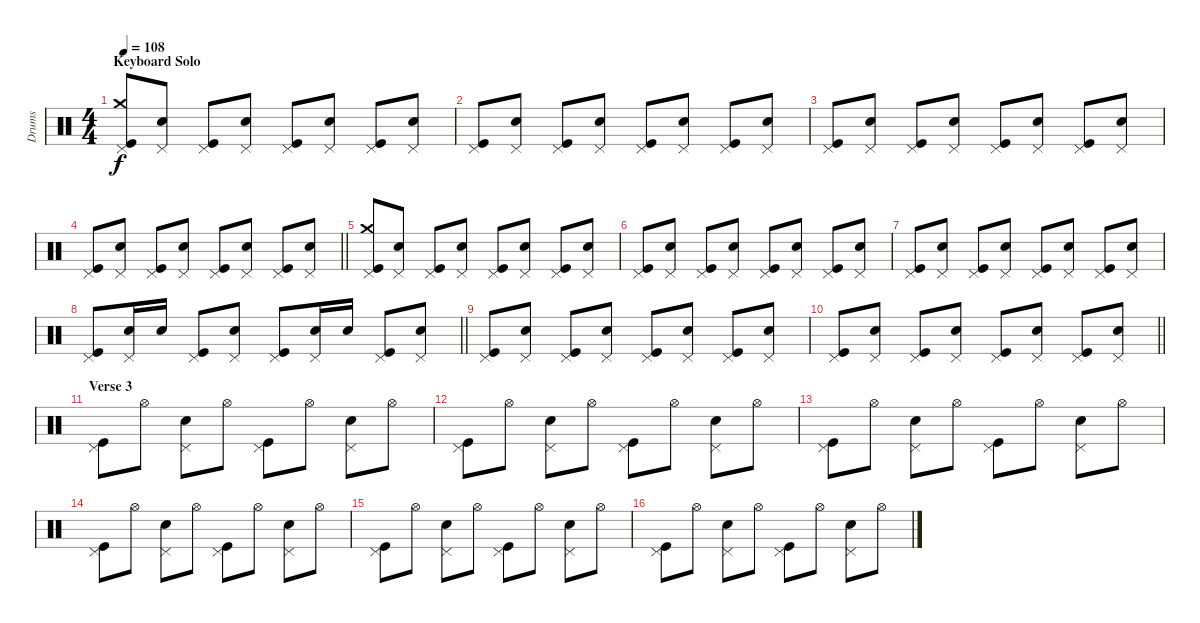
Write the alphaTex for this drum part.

\track ("Drums" "Drums") {instrument percussion}
\staff {score}
\articulation defaults
\ts (4 4)
\section ("" "Keyboard Solo")
\tempo 108
\clef neutral
\ks c
("Pedal Hi-Hat (hit)" "Crash medium (hit)" "Kick (hit)").8{dy f} ("Pedal Hi-Hat (hit)" "Electric Snare (hit)").8 ("Pedal Hi-Hat (hit)" "Kick (hit)").8 ("Pedal Hi-Hat (hit)" "Electric Snare (hit)").8 ("Pedal Hi-Hat (hit)" "Kick (hit)").8 ("Pedal Hi-Hat (hit)" "Electric Snare (hit)").8 ("Pedal Hi-Hat (hit)" "Kick (hit)").8 ("Pedal Hi-Hat (hit)" "Electric Snare (hit)").8 |
("Pedal Hi-Hat (hit)" "Kick (hit)").8 ("Pedal Hi-Hat (hit)" "Electric Snare (hit)").8 ("Pedal Hi-Hat (hit)" "Kick (hit)").8 ("Pedal Hi-Hat (hit)" "Electric Snare (hit)").8 ("Pedal Hi-Hat (hit)" "Kick (hit)").8 ("Pedal Hi-Hat (hit)" "Electric Snare (hit)").8 ("Pedal Hi-Hat (hit)" "Kick (hit)").8 ("Pedal Hi-Hat (hit)" "Electric Snare (hit)").8 |
("Pedal Hi-Hat (hit)" "Kick (hit)").8 ("Pedal Hi-Hat (hit)" "Electric Snare (hit)").8 ("Pedal Hi-Hat (hit)" "Kick (hit)").8 ("Pedal Hi-Hat (hit)" "Electric Snare (hit)").8 ("Pedal Hi-Hat (hit)" "Kick (hit)").8 ("Pedal Hi-Hat (hit)" "Electric Snare (hit)").8 ("Pedal Hi-Hat (hit)" "Kick (hit)").8 ("Pedal Hi-Hat (hit)" "Electric Snare (hit)").8 |
\barLineRight lightlight
("Pedal Hi-Hat (hit)" "Kick (hit)").8 ("Pedal Hi-Hat (hit)" "Electric Snare (hit)").8 ("Pedal Hi-Hat (hit)" "Kick (hit)").8 ("Pedal Hi-Hat (hit)" "Electric Snare (hit)").8 ("Pedal Hi-Hat (hit)" "Kick (hit)").8 ("Pedal Hi-Hat (hit)" "Electric Snare (hit)").8 ("Pedal Hi-Hat (hit)" "Kick (hit)").8 ("Pedal Hi-Hat (hit)" "Electric Snare (hit)").8 |
("Pedal Hi-Hat (hit)" "Crash medium (hit)" "Kick (hit)").8 ("Pedal Hi-Hat (hit)" "Electric Snare (hit)").8 ("Pedal Hi-Hat (hit)" "Kick (hit)").8 ("Pedal Hi-Hat (hit)" "Electric Snare (hit)").8 ("Pedal Hi-Hat (hit)" "Kick (hit)").8 ("Pedal Hi-Hat (hit)" "Electric Snare (hit)").8 ("Pedal Hi-Hat (hit)" "Kick (hit)").8 ("Pedal Hi-Hat (hit)" "Electric Snare (hit)").8 |
("Pedal Hi-Hat (hit)" "Kick (hit)").8 ("Pedal Hi-Hat (hit)" "Electric Snare (hit)").8 ("Pedal Hi-Hat (hit)" "Kick (hit)").8 ("Pedal Hi-Hat (hit)" "Electric Snare (hit)").8 ("Pedal Hi-Hat (hit)" "Kick (hit)").8 ("Pedal Hi-Hat (hit)" "Electric Snare (hit)").8 ("Pedal Hi-Hat (hit)" "Kick (hit)").8 ("Pedal Hi-Hat (hit)" "Electric Snare (hit)").8 |
("Pedal Hi-Hat (hit)" "Kick (hit)").8 ("Pedal Hi-Hat (hit)" "Electric Snare (hit)").8 ("Pedal Hi-Hat (hit)" "Kick (hit)").8 ("Pedal Hi-Hat (hit)" "Electric Snare (hit)").8 ("Pedal Hi-Hat (hit)" "Kick (hit)").8 ("Pedal Hi-Hat (hit)" "Electric Snare (hit)").8 ("Pedal Hi-Hat (hit)" "Kick (hit)").8 ("Pedal Hi-Hat (hit)" "Electric Snare (hit)").8 |
\barLineRight lightlight
("Pedal Hi-Hat (hit)" "Kick (hit)").8 ("Pedal Hi-Hat (hit)" "Electric Snare (hit)").16 "Electric Snare (hit)".16 ("Pedal Hi-Hat (hit)" "Kick (hit)").8 ("Pedal Hi-Hat (hit)" "Electric Snare (hit)").8 ("Pedal Hi-Hat (hit)" "Kick (hit)").8 ("Pedal Hi-Hat (hit)" "Electric Snare (hit)").16 "Electric Snare (hit)".16 ("Pedal Hi-Hat (hit)" "Kick (hit)").8 ("Pedal Hi-Hat (hit)" "Electric Snare (hit)").8 |
("Pedal Hi-Hat (hit)" "Kick (hit)").8 ("Pedal Hi-Hat (hit)" "Electric Snare (hit)").8 ("Pedal Hi-Hat (hit)" "Kick (hit)").8 ("Pedal Hi-Hat (hit)" "Electric Snare (hit)").8 ("Pedal Hi-Hat (hit)" "Kick (hit)").8 ("Pedal Hi-Hat (hit)" "Electric Snare (hit)").8 ("Pedal Hi-Hat (hit)" "Kick (hit)").8 ("Pedal Hi-Hat (hit)" "Electric Snare (hit)").8 |
\barLineRight lightlight
("Pedal Hi-Hat (hit)" "Kick (hit)").8 ("Pedal Hi-Hat (hit)" "Electric Snare (hit)").8 ("Pedal Hi-Hat (hit)" "Kick (hit)").8 ("Pedal Hi-Hat (hit)" "Electric Snare (hit)").8 ("Pedal Hi-Hat (hit)" "Kick (hit)").8 ("Pedal Hi-Hat (hit)" "Electric Snare (hit)").8 ("Pedal Hi-Hat (hit)" "Kick (hit)").8 ("Pedal Hi-Hat (hit)" "Electric Snare (hit)").8 |
\section ("" "Verse 3")
("Pedal Hi-Hat (hit)" "Kick (hit)").8 "Hi-Hat (open)".8 ("Pedal Hi-Hat (hit)" "Electric Snare (hit)").8 "Hi-Hat (open)".8 ("Pedal Hi-Hat (hit)" "Kick (hit)").8 "Hi-Hat (open)".8 ("Pedal Hi-Hat (hit)" "Electric Snare (hit)").8 "Hi-Hat (open)".8 |
("Pedal Hi-Hat (hit)" "Kick (hit)").8 "Hi-Hat (open)".8 ("Pedal Hi-Hat (hit)" "Electric Snare (hit)").8 "Hi-Hat (open)".8 ("Pedal Hi-Hat (hit)" "Kick (hit)").8 "Hi-Hat (open)".8 ("Pedal Hi-Hat (hit)" "Electric Snare (hit)").8 "Hi-Hat (open)".8 |
("Pedal Hi-Hat (hit)" "Kick (hit)").8 "Hi-Hat (open)".8 ("Pedal Hi-Hat (hit)" "Electric Snare (hit)").8 "Hi-Hat (open)".8 ("Pedal Hi-Hat (hit)" "Kick (hit)").8 "Hi-Hat (open)".8 ("Pedal Hi-Hat (hit)" "Electric Snare (hit)").8 "Hi-Hat (open)".8 |
("Pedal Hi-Hat (hit)" "Kick (hit)").8 "Hi-Hat (open)".8 ("Pedal Hi-Hat (hit)" "Electric Snare (hit)").8 "Hi-Hat (open)".8 ("Pedal Hi-Hat (hit)" "Kick (hit)").8 "Hi-Hat (open)".8 ("Pedal Hi-Hat (hit)" "Electric Snare (hit)").8 "Hi-Hat (open)".8 |
("Pedal Hi-Hat (hit)" "Kick (hit)").8 "Hi-Hat (open)".8 ("Pedal Hi-Hat (hit)" "Electric Snare (hit)").8 "Hi-Hat (open)".8 ("Pedal Hi-Hat (hit)" "Kick (hit)").8 "Hi-Hat (open)".8 ("Pedal Hi-Hat (hit)" "Electric Snare (hit)").8 "Hi-Hat (open)".8 |
("Pedal Hi-Hat (hit)" "Kick (hit)").8 "Hi-Hat (open)".8 ("Pedal Hi-Hat (hit)" "Electric Snare (hit)").8 "Hi-Hat (open)".8 ("Pedal Hi-Hat (hit)" "Kick (hit)").8 "Hi-Hat (open)".8 ("Pedal Hi-Hat (hit)" "Electric Snare (hit)").8 "Hi-Hat (open)".8
